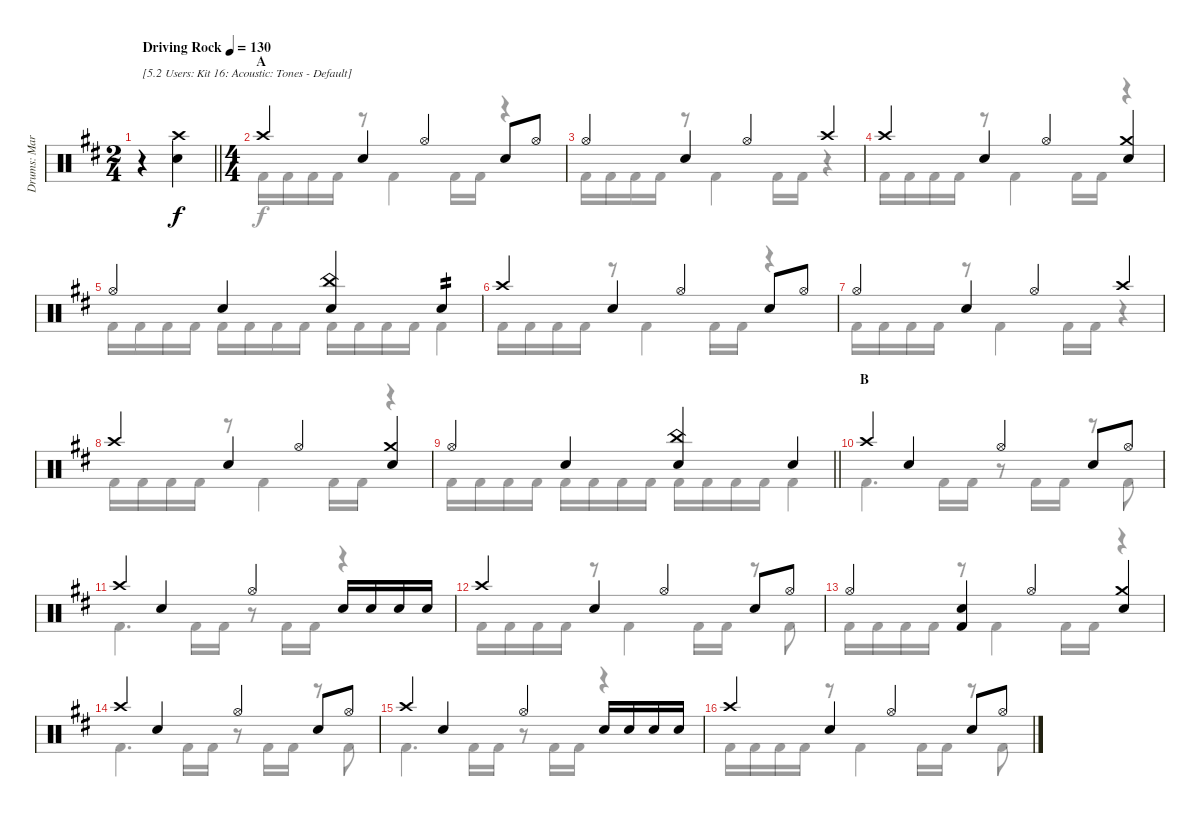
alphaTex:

\track ("Drums: Mark" "Drums: Mar") {instrument percussion}
\staff {score}
\articulation defaults
\voice
\ts (2 4)
\tempo (130 "Driving Rock")
\clef neutral
\barLineRight lightlight
\ks d
r.4{txt "[5.2 Users: Kit 16: Acoustic: Tones - Default]" dy f} ("Crash high (hit)" "Snare (hit) 2").4 |
\ts (4 4)
\section ("" "A")
"Crash high (hit)".4 "Snare (hit) 2".4 "Hi-Hat (open)".4 "Snare (hit) 2".8 "Hi-Hat (open)".8 |
"Hi-Hat (open)".4 "Snare (hit) 2".4 "Hi-Hat (open)".4 "Crash high (hit)".4 |
"Crash high (hit)".4 "Snare (hit) 2".4 "Hi-Hat (open)".4 ("Crash medium (hit)" "Snare (hit) 2").4 |
"Hi-Hat (open)".4 "Snare (hit) 2".4 ("China (hit)" "Snare (hit) 2").4 "Snare (hit) 2".4{tp 2} |
"Crash high (hit)".4 "Snare (hit) 2".4 "Hi-Hat (open)".4 "Snare (hit) 2".8 "Hi-Hat (open)".8 |
"Hi-Hat (open)".4 "Snare (hit) 2".4 "Hi-Hat (open)".4 "Crash high (hit)".4 |
"Crash high (hit)".4 "Snare (hit) 2".4 "Hi-Hat (open)".4 ("Crash medium (hit)" "Snare (hit) 2").4 |
\barLineRight lightlight "Hi-Hat (open)".4 "Snare (hit) 2".4
("China (hit)" "Snare (hit) 2").4 "Snare (hit) 2".4 |
\section ("" "B")
"Crash high (hit)".4 "Snare (hit) 2".4 "Hi-Hat (open)".4 "Snare (hit) 2".8 "Hi-Hat (open)".8 |
"Crash high (hit)".4 "Snare (hit) 2".4 "Hi-Hat (open)".4 "Snare (hit) 2".16 "Snare (hit) 2".16 "Snare (hit) 2".16 "Snare (hit) 2".16 |
"Crash high (hit)".4 "Snare (hit) 2".4 "Hi-Hat (open)".4 "Snare (hit) 2".8 "Hi-Hat (open)".8 |
"Hi-Hat (open)".4 ("Snare (hit) 2" "Kick (hit) 2").4 "Hi-Hat (open)".4 ("Crash medium (hit)" "Snare (hit) 2").4 |
"Crash high (hit)".4 "Snare (hit) 2".4 "Hi-Hat (open)".4 "Snare (hit) 2".8 "Hi-Hat (open)".8 |
"Crash high (hit)".4 "Snare (hit) 2".4 "Hi-Hat (open)".4 "Snare (hit) 2".16 "Snare (hit) 2".16 "Snare (hit) 2".16 "Snare (hit) 2".16 |
"Crash high (hit)".4 "Snare (hit) 2".4 "Hi-Hat (open)".4 "Snare (hit) 2".8 "Hi-Hat (open)".8
\voice
\clef neutral
\ottava regular
\simile none
\barLineRight lightlight
\ks d
|
"Kick (hit) 2".16 "Kick (hit) 2".16 "Kick (hit) 2".16 "Kick (hit) 2".16 r.8 "Kick (hit) 2".4 "Kick (hit) 2".16 "Kick (hit) 2".16 r.4 |
"Kick (hit) 2".16 "Kick (hit) 2".16 "Kick (hit) 2".16 "Kick (hit) 2".16 r.8 "Kick (hit) 2".4 "Kick (hit) 2".16 "Kick (hit) 2".16 r.4 |
"Kick (hit) 2".16 "Kick (hit) 2".16 "Kick (hit) 2".16 "Kick (hit) 2".16 r.8 "Kick (hit) 2".4 "Kick (hit) 2".16 "Kick (hit) 2".16 r.4 |
"Kick (hit) 2".16 "Kick (hit) 2".16 "Kick (hit) 2".16 "Kick (hit) 2".16 "Kick (hit) 2".16 "Kick (hit) 2".16 "Kick (hit) 2".16 "Kick (hit) 2".16 "Kick (hit) 2".16 "Kick (hit) 2".16 "Kick (hit) 2".16 "Kick (hit) 2".16 "Kick (hit) 2".4 |
"Kick (hit) 2".16 "Kick (hit) 2".16 "Kick (hit) 2".16 "Kick (hit) 2".16 r.8 "Kick (hit) 2".4 "Kick (hit) 2".16 "Kick (hit) 2".16 r.4 |
"Kick (hit) 2".16 "Kick (hit) 2".16 "Kick (hit) 2".16 "Kick (hit) 2".16 r.8 "Kick (hit) 2".4 "Kick (hit) 2".16 "Kick (hit) 2".16 r.4 |
"Kick (hit) 2".16 "Kick (hit) 2".16 "Kick (hit) 2".16 "Kick (hit) 2".16 r.8 "Kick (hit) 2".4 "Kick (hit) 2".16 "Kick (hit) 2".16 r.4 |
\barLineRight lightlight "Kick (hit) 2".16 "Kick (hit) 2".16 "Kick (hit) 2".16 "Kick (hit) 2".16 "Kick (hit) 2".16 "Kick (hit) 2".16 "Kick (hit) 2".16 "Kick (hit) 2".16 "Kick (hit) 2".16 "Kick (hit) 2".16 "Kick (hit) 2".16 "Kick (hit) 2".16 "Kick (hit) 2".4
|
"Kick (hit) 2".4{d} "Kick (hit) 2".16 "Kick (hit) 2".16 r.8 "Kick (hit) 2".16 "Kick (hit) 2".16 r.8 "Kick (hit) 2".8 |
"Kick (hit) 2".4{d} "Kick (hit) 2".16 "Kick (hit) 2".16 r.8 "Kick (hit) 2".16 "Kick (hit) 2".16 r.4 |
"Kick (hit) 2".16 "Kick (hit) 2".16 "Kick (hit) 2".16 "Kick (hit) 2".16 r.8 "Kick (hit) 2".4 "Kick (hit) 2".16 "Kick (hit) 2".16 r.8 "Kick (hit) 2".8 |
"Kick (hit) 2".16 "Kick (hit) 2".16 "Kick (hit) 2".16 "Kick (hit) 2".16 r.8 "Kick (hit) 2".4 "Kick (hit) 2".16 "Kick (hit) 2".16 r.4 |
"Kick (hit) 2".4{d} "Kick (hit) 2".16 "Kick (hit) 2".16 r.8 "Kick (hit) 2".16 "Kick (hit) 2".16 r.8 "Kick (hit) 2".8 |
"Kick (hit) 2".4{d} "Kick (hit) 2".16 "Kick (hit) 2".16 r.8 "Kick (hit) 2".16 "Kick (hit) 2".16 r.4 |
"Kick (hit) 2".16 "Kick (hit) 2".16 "Kick (hit) 2".16 "Kick (hit) 2".16 r.8 "Kick (hit) 2".4 "Kick (hit) 2".16 "Kick (hit) 2".16 r.8 "Kick (hit) 2".8
